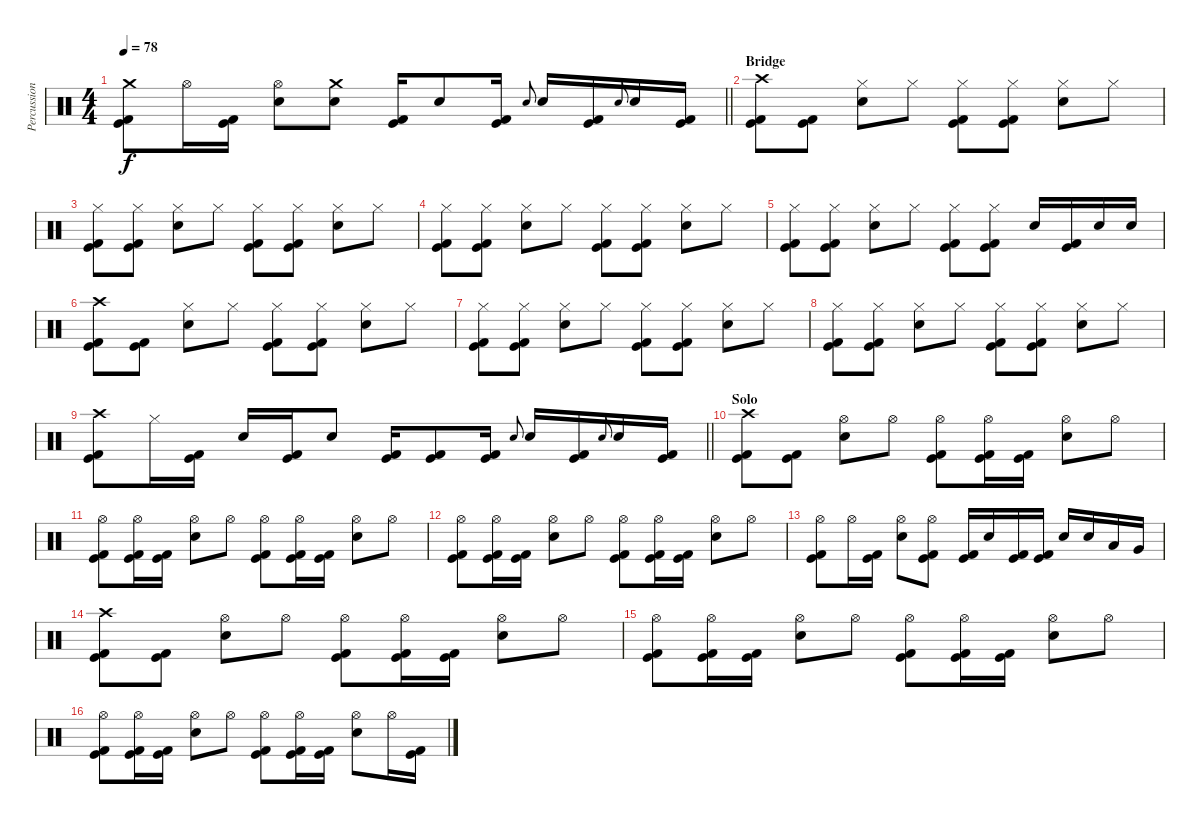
\track ("Percussion" "Percussion") {instrument percussion}
\staff {score}
\articulation defaults
\ts (4 4)
\tempo 78
\clef neutral
\barLineRight lightlight
\ks c
("Crash medium (hit)" "Kick (hit)" "Kick (hit) 2").8{dy f} "Hi-Hat (open)".16 ("Kick (hit)" "Kick (hit) 2").16 ("Hi-Hat (open)" "Electric Snare (hit)").8 ("Crash medium (hit)" "Electric Snare (hit)").8 ("Kick (hit)" "Kick (hit) 2").16 "Electric Snare (hit)".8 ("Kick (hit)" "Kick (hit) 2").16 "Electric Snare (hit)".8{gr onbeat} "Electric Snare (hit)".16 ("Kick (hit)" "Kick (hit) 2").16 "Electric Snare (hit)".8{gr onbeat} "Electric Snare (hit)".16 ("Kick (hit)" "Kick (hit) 2").16 |
\section ("" "Bridge")
("Crash high (hit)" "Kick (hit)" "Kick (hit) 2").8 ("Kick (hit)" "Kick (hit) 2").8 ("Hi-Hat (closed)" "Electric Snare (hit)").8 "Hi-Hat (closed)".8 ("Hi-Hat (closed)" "Kick (hit)" "Kick (hit) 2").8 ("Hi-Hat (closed)" "Kick (hit)" "Kick (hit) 2").8 ("Hi-Hat (closed)" "Electric Snare (hit)").8 "Hi-Hat (closed)".8 |
("Hi-Hat (closed)" "Kick (hit)" "Kick (hit) 2").8 ("Hi-Hat (closed)" "Kick (hit)" "Kick (hit) 2").8 ("Hi-Hat (closed)" "Electric Snare (hit)").8 "Hi-Hat (closed)".8 ("Hi-Hat (closed)" "Kick (hit)" "Kick (hit) 2").8 ("Hi-Hat (closed)" "Kick (hit)" "Kick (hit) 2").8 ("Hi-Hat (closed)" "Electric Snare (hit)").8 "Hi-Hat (closed)".8 |
("Hi-Hat (closed)" "Kick (hit)" "Kick (hit) 2").8 ("Hi-Hat (closed)" "Kick (hit)" "Kick (hit) 2").8 ("Hi-Hat (closed)" "Electric Snare (hit)").8 "Hi-Hat (closed)".8 ("Hi-Hat (closed)" "Kick (hit)" "Kick (hit) 2").8 ("Hi-Hat (closed)" "Kick (hit)" "Kick (hit) 2").8 ("Hi-Hat (closed)" "Electric Snare (hit)").8 "Hi-Hat (closed)".8 |
("Hi-Hat (closed)" "Kick (hit)" "Kick (hit) 2").8 ("Hi-Hat (closed)" "Kick (hit)" "Kick (hit) 2").8 ("Hi-Hat (closed)" "Electric Snare (hit)").8 "Hi-Hat (closed)".8 ("Hi-Hat (closed)" "Kick (hit)" "Kick (hit) 2").8 ("Hi-Hat (closed)" "Kick (hit)" "Kick (hit) 2").8 "Electric Snare (hit)".16 ("Kick (hit)" "Kick (hit) 2").16 "Electric Snare (hit)".16 "Electric Snare (hit)".16 |
("Crash high (hit)" "Kick (hit)" "Kick (hit) 2").8 ("Kick (hit)" "Kick (hit) 2").8 ("Hi-Hat (closed)" "Electric Snare (hit)").8 "Hi-Hat (closed)".8 ("Hi-Hat (closed)" "Kick (hit)" "Kick (hit) 2").8 ("Hi-Hat (closed)" "Kick (hit)" "Kick (hit) 2").8 ("Hi-Hat (closed)" "Electric Snare (hit)").8 "Hi-Hat (closed)".8 |
("Hi-Hat (closed)" "Kick (hit)" "Kick (hit) 2").8 ("Hi-Hat (closed)" "Kick (hit)" "Kick (hit) 2").8 ("Hi-Hat (closed)" "Electric Snare (hit)").8 "Hi-Hat (closed)".8 ("Hi-Hat (closed)" "Kick (hit)" "Kick (hit) 2").8 ("Hi-Hat (closed)" "Kick (hit)" "Kick (hit) 2").8 ("Hi-Hat (closed)" "Electric Snare (hit)").8 "Hi-Hat (closed)".8 |
("Hi-Hat (closed)" "Kick (hit)" "Kick (hit) 2").8 ("Hi-Hat (closed)" "Kick (hit)" "Kick (hit) 2").8 ("Hi-Hat (closed)" "Electric Snare (hit)").8 "Hi-Hat (closed)".8 ("Hi-Hat (closed)" "Kick (hit)" "Kick (hit) 2").8 ("Hi-Hat (closed)" "Kick (hit)" "Kick (hit) 2").8 ("Hi-Hat (closed)" "Electric Snare (hit)").8 "Hi-Hat (closed)".8 |
\barLineRight lightlight
("Crash high (hit)" "Kick (hit)" "Kick (hit) 2").8 "Hi-Hat (closed)".16 ("Kick (hit)" "Kick (hit) 2").16 "Electric Snare (hit)".16 ("Kick (hit)" "Kick (hit) 2").16 "Electric Snare (hit)".8 ("Kick (hit)" "Kick (hit) 2").16 ("Kick (hit)" "Kick (hit) 2").8 ("Kick (hit)" "Kick (hit) 2").16 "Electric Snare (hit)".8{gr onbeat} "Electric Snare (hit)".16 ("Kick (hit)" "Kick (hit) 2").16 "Electric Snare (hit)".8{gr onbeat} "Electric Snare (hit)".16 ("Kick (hit)" "Kick (hit) 2").16 |
\section ("" "Solo")
("Crash high (hit)" "Kick (hit)" "Kick (hit) 2").8 ("Kick (hit)" "Kick (hit) 2").8 ("Hi-Hat (open)" "Electric Snare (hit)").8 "Hi-Hat (open)".8 ("Hi-Hat (open)" "Kick (hit)" "Kick (hit) 2").8 ("Hi-Hat (open)" "Kick (hit)" "Kick (hit) 2").16 ("Kick (hit)" "Kick (hit) 2").16 ("Hi-Hat (open)" "Electric Snare (hit)").8 "Hi-Hat (open)".8 |
("Hi-Hat (open)" "Kick (hit)" "Kick (hit) 2").8 ("Hi-Hat (open)" "Kick (hit)" "Kick (hit) 2").16 ("Kick (hit)" "Kick (hit) 2").16 ("Hi-Hat (open)" "Electric Snare (hit)").8 "Hi-Hat (open)".8 ("Hi-Hat (open)" "Kick (hit)" "Kick (hit) 2").8 ("Hi-Hat (open)" "Kick (hit)" "Kick (hit) 2").16 ("Kick (hit)" "Kick (hit) 2").16 ("Hi-Hat (open)" "Electric Snare (hit)").8 "Hi-Hat (open)".8 |
("Hi-Hat (open)" "Kick (hit)" "Kick (hit) 2").8 ("Hi-Hat (open)" "Kick (hit)" "Kick (hit) 2").16 ("Kick (hit)" "Kick (hit) 2").16 ("Hi-Hat (open)" "Electric Snare (hit)").8 "Hi-Hat (open)".8 ("Hi-Hat (open)" "Kick (hit)" "Kick (hit) 2").8 ("Hi-Hat (open)" "Kick (hit)" "Kick (hit) 2").16 ("Kick (hit)" "Kick (hit) 2").16 ("Hi-Hat (open)" "Electric Snare (hit)").8 "Hi-Hat (open)".8 |
("Hi-Hat (open)" "Kick (hit)" "Kick (hit) 2").8 "Hi-Hat (open)".16 ("Kick (hit)" "Kick (hit) 2").16 ("Hi-Hat (open)" "Electric Snare (hit)").8 ("Hi-Hat (open)" "Kick (hit)" "Kick (hit) 2").8 ("Kick (hit)" "Kick (hit) 2").16 "Electric Snare (hit)".16 ("Kick (hit)" "Kick (hit) 2").16 ("Kick (hit)" "Kick (hit) 2").16 "Electric Snare (hit)".16 "Electric Snare (hit)".16 "Low Tom (hit)".16 "Very Low Tom (hit)".16 |
("Crash high (hit)" "Kick (hit)" "Kick (hit) 2").8 ("Kick (hit)" "Kick (hit) 2").8 ("Hi-Hat (open)" "Electric Snare (hit)").8 "Hi-Hat (open)".8 ("Hi-Hat (open)" "Kick (hit)" "Kick (hit) 2").8 ("Hi-Hat (open)" "Kick (hit)" "Kick (hit) 2").16 ("Kick (hit)" "Kick (hit) 2").16 ("Hi-Hat (open)" "Electric Snare (hit)").8 "Hi-Hat (open)".8 |
("Hi-Hat (open)" "Kick (hit)" "Kick (hit) 2").8 ("Hi-Hat (open)" "Kick (hit)" "Kick (hit) 2").16 ("Kick (hit)" "Kick (hit) 2").16 ("Hi-Hat (open)" "Electric Snare (hit)").8 "Hi-Hat (open)".8 ("Hi-Hat (open)" "Kick (hit)" "Kick (hit) 2").8 ("Hi-Hat (open)" "Kick (hit)" "Kick (hit) 2").16 ("Kick (hit)" "Kick (hit) 2").16 ("Hi-Hat (open)" "Electric Snare (hit)").8 "Hi-Hat (open)".8 |
("Hi-Hat (open)" "Kick (hit)" "Kick (hit) 2").8 ("Hi-Hat (open)" "Kick (hit)" "Kick (hit) 2").16 ("Kick (hit)" "Kick (hit) 2").16 ("Hi-Hat (open)" "Electric Snare (hit)").8 "Hi-Hat (open)".8 ("Hi-Hat (open)" "Kick (hit)" "Kick (hit) 2").8 ("Hi-Hat (open)" "Kick (hit)" "Kick (hit) 2").16 ("Kick (hit)" "Kick (hit) 2").16 ("Hi-Hat (open)" "Electric Snare (hit)").8 "Hi-Hat (open)".16 ("Kick (hit)" "Kick (hit) 2").16
